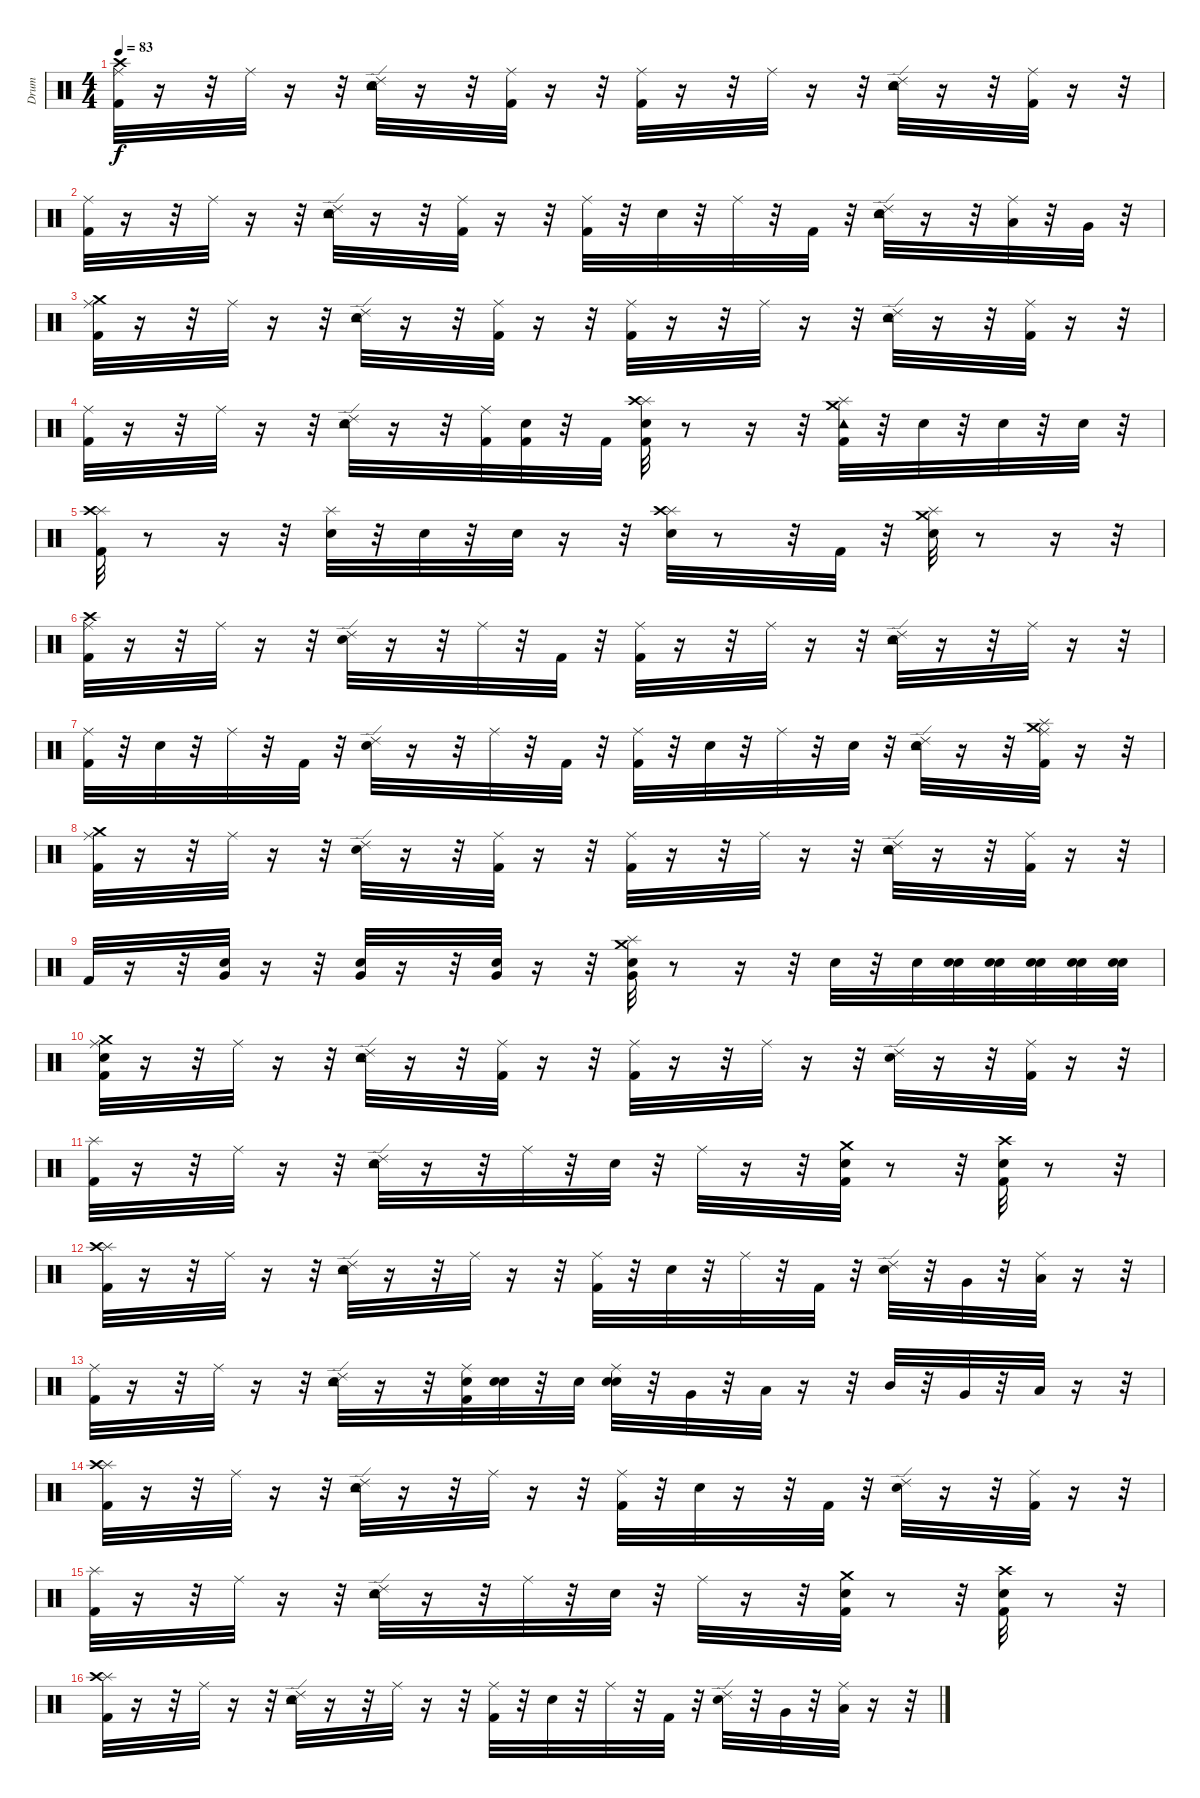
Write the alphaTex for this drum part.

\track ("Drum" "Drum") {instrument percussion}
\staff {score}
\articulation defaults
\ts (4 4)
\tempo 83
\clef neutral
\ks c
("Ride (middle)" "Crash high (hit)" "Kick (hit) 2").32{dy f} r.16 r.32 "Ride (middle)".32 r.16 r.32 ("Ride (edge) 2" "Tambourine (hit)" "Electric Snare (hit)").32 r.16 r.32 ("Ride (middle)" "Kick (hit) 2").32 r.16 r.32 ("Ride (middle)" "Kick (hit) 2").32 r.16 r.32 "Ride (middle)".32 r.16 r.32 ("Ride (edge) 2" "Tambourine (hit)" "Electric Snare (hit)").32 r.16 r.32 ("Ride (middle)" "Kick (hit) 2").32 r.16 r.32 |
("Ride (middle)" "Kick (hit) 2").32 r.16 r.32 "Ride (middle)".32 r.16 r.32 ("Ride (edge) 2" "Tambourine (hit)" "Electric Snare (hit)").32 r.16 r.32 ("Ride (middle)" "Kick (hit) 2").32 r.16 r.32 ("Ride (middle)" "Kick (hit) 2").32 r.32 "Electric Snare (hit)".32 r.32 "Ride (middle)".32 r.32 "Kick (hit) 2".32 r.32 ("Ride (edge) 2" "Tambourine (hit)" "Electric Snare (hit)").32 r.16 r.32 ("Ride (middle)" "Low Tom (hit)").32 r.32 "Very Low Tom (hit)".32 r.32 |
("Ride (middle)" "Crash medium (hit)" "Kick (hit) 2").32 r.16 r.32 "Ride (middle)".32 r.16 r.32 ("Ride (edge) 2" "Tambourine (hit)" "Electric Snare (hit)").32 r.16 r.32 ("Ride (middle)" "Kick (hit) 2").32 r.16 r.32 ("Ride (middle)" "Kick (hit) 2").32 r.16 r.32 "Ride (middle)".32 r.16 r.32 ("Ride (edge) 2" "Tambourine (hit)" "Electric Snare (hit)").32 r.16 r.32 ("Ride (middle)" "Kick (hit) 2").32 r.16 r.32 |
("Ride (middle)" "Kick (hit) 2").32 r.16 r.32 "Ride (middle)".32 r.16 r.32 ("Ride (edge) 2" "Tambourine (hit)" "Electric Snare (hit)").32 r.16 r.32 ("Ride (middle)" "Kick (hit) 2").32 ("Snare (hit)" "Kick (hit) 2").32 r.32 "Kick (hit) 2".32 ("Snare (hit)" "Splash (hit)" "Crash high (hit)" "Kick (hit) 2").32 r.8 r.16 r.32 ("Splash (hit)" "Crash medium (hit)" "Tambourine (hit)" "Kick (hit) 2").32 r.32 "Electric Snare (hit)".32 r.32 "Electric Snare (hit)".32 r.32 "Electric Snare (hit)".32 r.32 |
("Splash (hit)" "Crash high (hit)" "Kick (hit) 2").32 r.8 r.16 r.32 ("Splash (hit)" "Electric Snare (hit)").32 r.32 "Electric Snare (hit)".32 r.32 "Electric Snare (hit)".32 r.16 r.32 ("Splash (hit)" "Crash high (hit)" "Electric Snare (hit)").32 r.8 r.32 "Kick (hit) 2".32 r.32 ("Splash (hit)" "Crash medium (hit)" "Electric Snare (hit)").32 r.8 r.16 r.32 |
("Ride (middle)" "Crash high (hit)" "Kick (hit) 2").32 r.16 r.32 "Ride (middle)".32 r.16 r.32 ("Ride (edge) 2" "Electric Snare (hit)").32 r.16 r.32 "Ride (middle)".32 r.32 "Kick (hit) 2".32 r.32 ("Ride (middle)" "Kick (hit) 2").32 r.16 r.32 "Ride (middle)".32 r.16 r.32 ("Ride (edge) 2" "Tambourine (hit)" "Electric Snare (hit)").32 r.16 r.32 "Ride (middle)".32 r.16 r.32 |
("Ride (middle)" "Kick (hit) 2").32 r.32 "Electric Snare (hit)".32 r.32 "Ride (middle)".32 r.32 "Kick (hit) 2".32 r.32 ("Ride (edge) 2" "Electric Snare (hit)").32 r.16 r.32 "Ride (middle)".32 r.32 "Kick (hit) 2".32 r.32 ("Ride (middle)" "Kick (hit) 2").32 r.32 "Electric Snare (hit)".32 r.32 "Ride (middle)".32 r.32 "Electric Snare (hit)".32 r.32 ("Ride (edge) 2" "Tambourine (hit)" "Electric Snare (hit)").32 r.16 r.32 ("Ride (middle)" "Splash (hit)" "Crash medium (hit)" "Kick (hit) 2").32 r.16 r.32 |
("Ride (middle)" "Crash medium (hit)" "Kick (hit) 2").32 r.16 r.32 "Ride (middle)".32 r.16 r.32 ("Ride (edge) 2" "Electric Snare (hit)").32 r.16 r.32 ("Ride (middle)" "Kick (hit) 2").32 r.16 r.32 ("Ride (middle)" "Kick (hit) 2").32 r.16 r.32 "Ride (middle)".32 r.16 r.32 ("Ride (edge) 2" "Tambourine (hit)" "Electric Snare (hit)").32 r.16 r.32 ("Ride (middle)" "Kick (hit) 2").32 r.16 r.32 |
"Kick (hit) 2".32 r.16 r.32 ("Electric Snare (hit)" "Very Low Tom (hit)").32 r.16 r.32 ("Electric Snare (hit)" "Very Low Tom (hit)").32 r.16 r.32 ("Electric Snare (hit)" "Very Low Tom (hit)").32 r.16 r.32 ("Splash (hit)" "Crash medium (hit)" "Electric Snare (hit)" "Very Low Tom (hit)").32 r.8 r.16 r.32 "Electric Snare (hit)".32 r.32 "Electric Snare (hit)".32 ("Snare (hit)" "Electric Snare (hit)").32 ("Snare (hit)" "Electric Snare (hit)").32 ("Snare (hit)" "Electric Snare (hit)").32 ("Snare (hit)" "Electric Snare (hit)").32 ("Snare (hit)" "Electric Snare (hit)").32 |
("Snare (hit)" "Ride (middle)" "Crash medium (hit)" "Kick (hit) 2").32 r.16 r.32 "Ride (middle)".32 r.16 r.32 ("Ride (edge) 2" "Tambourine (hit)" "Electric Snare (hit)").32 r.16 r.32 ("Ride (middle)" "Kick (hit) 2").32 r.16 r.32 ("Ride (middle)" "Kick (hit) 2").32 r.16 r.32 "Ride (middle)".32 r.16 r.32 ("Ride (edge) 2" "Electric Snare (hit)").32 r.16 r.32 ("Ride (middle)" "Kick (hit) 2").32 r.16 r.32 |
("Splash (hit)" "Kick (hit) 2").32 r.16 r.32 "Ride (middle)".32 r.16 r.32 ("Ride (edge) 2" "Tambourine (hit)" "Electric Snare (hit)").32 r.16 r.32 "Ride (middle)".32 r.32 "Electric Snare (hit)".32 r.32 "Ride (middle)".32 r.16 r.32 ("Crash medium (hit)" "Electric Snare (hit)" "Kick (hit) 2").32 r.8 r.32 ("Crash high (hit)" "Electric Snare (hit)" "Kick (hit) 2").32 r.8 r.32 |
("Splash (hit)" "Crash high (hit)" "Kick (hit) 2").32 r.16 r.32 "Ride (middle)".32 r.16 r.32 ("Ride (edge) 2" "Tambourine (hit)" "Electric Snare (hit)").32 r.16 r.32 "Ride (middle)".32 r.16 r.32 ("Ride (middle)" "Kick (hit) 2").32 r.32 "Electric Snare (hit)".32 r.32 "Ride (middle)".32 r.32 "Kick (hit) 2".32 r.32 ("Ride (edge) 2" "Electric Snare (hit)").32 r.32 "Very Low Tom (hit)".32 r.32 ("Ride (middle)" "Low Floor Tom (hit)").32 r.16 r.32 |
("Ride (middle)" "Kick (hit) 2").32 r.16 r.32 "Ride (middle)".32 r.16 r.32 ("Tambourine (hit)" "Ride (edge) 2" "Electric Snare (hit)").32 r.16 r.32 ("Ride (middle)" "Electric Snare (hit)" "Kick (hit) 2").32 ("Snare (hit)" "Electric Snare (hit)").32 r.32 "Electric Snare (hit)".32 ("Snare (hit)" "Ride (middle)" "Electric Snare (hit)").32 r.32 "Very Low Tom (hit)".32 r.32 "Low Floor Tom (hit)".32 r.16 r.32 "Mid Tom (hit)".32 r.32 "Very Low Tom (hit)".32 r.32 "Low Floor Tom (hit)".32 r.16 r.32 |
("Splash (hit)" "Crash high (hit)" "Kick (hit) 2").32 r.16 r.32 "Ride (middle)".32 r.16 r.32 ("Ride (edge) 2" "Tambourine (hit)" "Electric Snare (hit)").32 r.16 r.32 "Ride (middle)".32 r.16 r.32 ("Ride (middle)" "Kick (hit) 2").32 r.32 "Electric Snare (hit)".32 r.16 r.32 "Kick (hit) 2".32 r.32 ("Ride (edge) 2" "Electric Snare (hit)").32 r.16 r.32 ("Ride (middle)" "Kick (hit) 2").32 r.16 r.32 |
("Splash (hit)" "Kick (hit) 2").32 r.16 r.32 "Ride (middle)".32 r.16 r.32 ("Ride (edge) 2" "Tambourine (hit)" "Electric Snare (hit)").32 r.16 r.32 "Ride (middle)".32 r.32 "Electric Snare (hit)".32 r.32 "Ride (middle)".32 r.16 r.32 ("Crash medium (hit)" "Electric Snare (hit)" "Kick (hit) 2").32 r.8 r.32 ("Crash high (hit)" "Electric Snare (hit)" "Kick (hit) 2").32 r.8 r.32 |
("Splash (hit)" "Crash high (hit)" "Kick (hit) 2").32 r.16 r.32 "Ride (middle)".32 r.16 r.32 ("Ride (edge) 2" "Tambourine (hit)" "Electric Snare (hit)").32 r.16 r.32 "Ride (middle)".32 r.16 r.32 ("Ride (middle)" "Kick (hit) 2").32 r.32 "Electric Snare (hit)".32 r.32 "Ride (middle)".32 r.32 "Kick (hit) 2".32 r.32 ("Ride (edge) 2" "Electric Snare (hit)").32 r.32 "Very Low Tom (hit)".32 r.32 ("Ride (middle)" "Low Floor Tom (hit)").32 r.16 r.32
